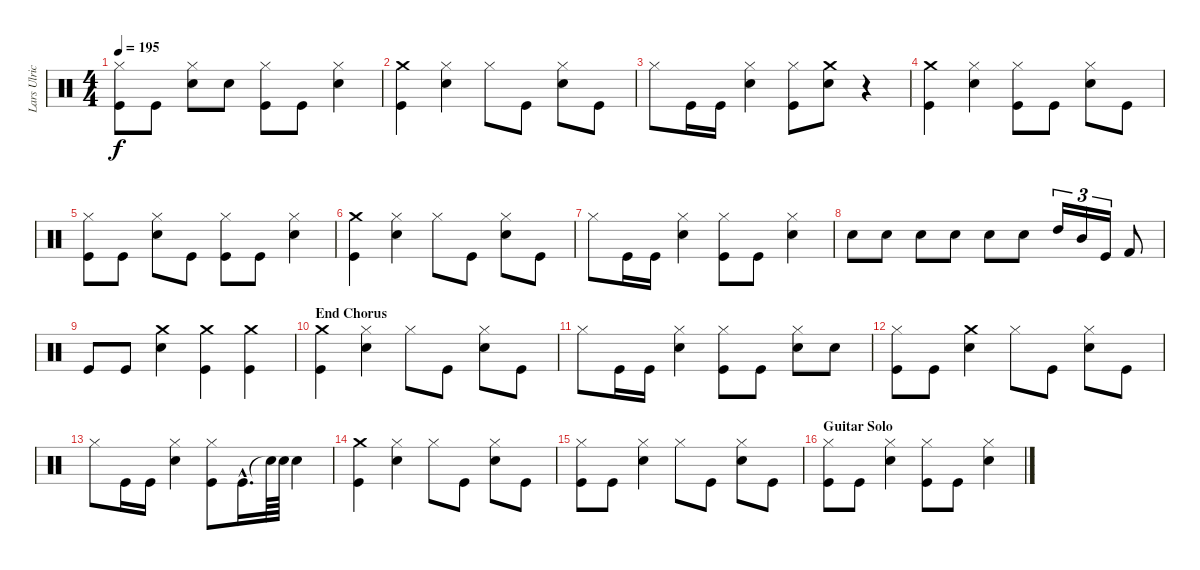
\track ("Lars Ulrich (Drums)" "Lars Ulric") {instrument percussion}
\staff {score}
\articulation defaults
\ts (4 4)
\tempo 195
\clef neutral
\ks c
("Kick (hit)" "Hi-Hat (closed)").8{dy f} "Kick (hit)".8 ("Snare (hit) 2" "Hi-Hat (closed)").8 "Snare (hit) 2".8 ("Kick (hit)" "Hi-Hat (closed)").8 "Kick (hit)".8 ("Snare (hit) 2" "Hi-Hat (closed)").4 |
("Kick (hit)" "Crash medium (hit)").4 ("Hi-Hat (closed)" "Snare (hit) 2").4 "Hi-Hat (closed)".8 "Kick (hit)".8 ("Snare (hit) 2" "Hi-Hat (closed)").8 "Kick (hit)".8 |
"Hi-Hat (closed)".8 "Kick (hit)".16 "Kick (hit)".16 ("Snare (hit) 2" "Hi-Hat (closed)").4 ("Kick (hit)" "Hi-Hat (closed)").8 ("Crash medium (hit)" "Snare (hit) 2").8 r.4 |
("Kick (hit)" "Crash medium (hit)").4 ("Hi-Hat (closed)" "Snare (hit) 2").4 ("Kick (hit)" "Hi-Hat (closed)").8 "Kick (hit)".8 ("Snare (hit) 2" "Hi-Hat (closed)").8 "Kick (hit)".8 |
("Hi-Hat (closed)" "Kick (hit)").8 "Kick (hit)".8 ("Snare (hit) 2" "Hi-Hat (closed)").8 "Kick (hit)".8 ("Hi-Hat (closed)" "Kick (hit)").8 "Kick (hit)".8 ("Snare (hit) 2" "Hi-Hat (closed)").4 |
("Kick (hit)" "Crash medium (hit)").4 ("Hi-Hat (closed)" "Snare (hit) 2").4 "Hi-Hat (closed)".8 "Kick (hit)".8 ("Snare (hit) 2" "Hi-Hat (closed)").8 "Kick (hit)".8 |
"Hi-Hat (closed)".8 "Kick (hit)".16 "Kick (hit)".16 ("Snare (hit) 2" "Hi-Hat (closed)").4 ("Kick (hit)" "Hi-Hat (closed)").8 "Kick (hit)".8 ("Snare (hit) 2" "Hi-Hat (closed)").4 |
"Snare (hit) 2".8 "Snare (hit) 2".8 "Snare (hit) 2".8 "Snare (hit) 2".8 "Snare (hit) 2".8 "Snare (hit) 2".8 "High Tom (hit)".16{tu (3 2)} "Mid Tom (hit)".16{tu (3 2)} "Kick (hit)".16{tu (3 2)} "Kick (hit) 2".8 |
"Kick (hit)".8 "Kick (hit)".8 ("Crash medium (hit)" "Snare (hit) 2").4 ("Crash medium (hit)" "Kick (hit)").4 ("Crash medium (hit)" "Kick (hit)").4 |
\section ("" "End Chorus")
("Kick (hit)" "Crash medium (hit)").4 ("Hi-Hat (closed)" "Snare (hit) 2").4 "Hi-Hat (closed)".8 "Kick (hit)".8 ("Snare (hit) 2" "Hi-Hat (closed)").8 "Kick (hit)".8 |
"Hi-Hat (closed)".8 "Kick (hit)".16 "Kick (hit)".16 ("Snare (hit) 2" "Hi-Hat (closed)").4 ("Hi-Hat (closed)" "Kick (hit)").8 "Kick (hit)".8 ("Snare (hit) 2" "Hi-Hat (closed)").8 "Snare (hit) 2".8 |
("Hi-Hat (closed)" "Kick (hit)").8 "Kick (hit)".8 ("Crash medium (hit)" "Snare (hit) 2").4 "Hi-Hat (closed)".8 "Kick (hit)".8 ("Snare (hit) 2" "Hi-Hat (closed)").8 "Kick (hit)".8 |
"Hi-Hat (closed)".8 "Kick (hit)".16 "Kick (hit)".16 ("Snare (hit) 2" "Hi-Hat (closed)").4 ("Hi-Hat (closed)" "Kick (hit)").8 "Kick (hit)"{hac}.16{d} "Snare (hit)"{t}.64 "Snare (hit) 2".64 "Snare (hit) 2".4 |
("Kick (hit)" "Crash medium (hit)").4 ("Hi-Hat (closed)" "Snare (hit) 2").4 "Hi-Hat (closed)".8 "Kick (hit)".8 ("Snare (hit) 2" "Hi-Hat (closed)").8 "Kick (hit)".8 |
("Kick (hit)" "Hi-Hat (closed)").8 "Kick (hit)".8 ("Snare (hit) 2" "Hi-Hat (closed)").4 "Hi-Hat (closed)".8 "Kick (hit)".8 ("Snare (hit) 2" "Hi-Hat (closed)").8 "Kick (hit)".8 |
\section ("" "Guitar Solo")
("Kick (hit)" "Hi-Hat (closed)").8 "Kick (hit)".8 ("Snare (hit) 2" "Hi-Hat (closed)").4 ("Kick (hit)" "Hi-Hat (closed)").8 "Kick (hit)".8 ("Snare (hit) 2" "Hi-Hat (closed)").4
